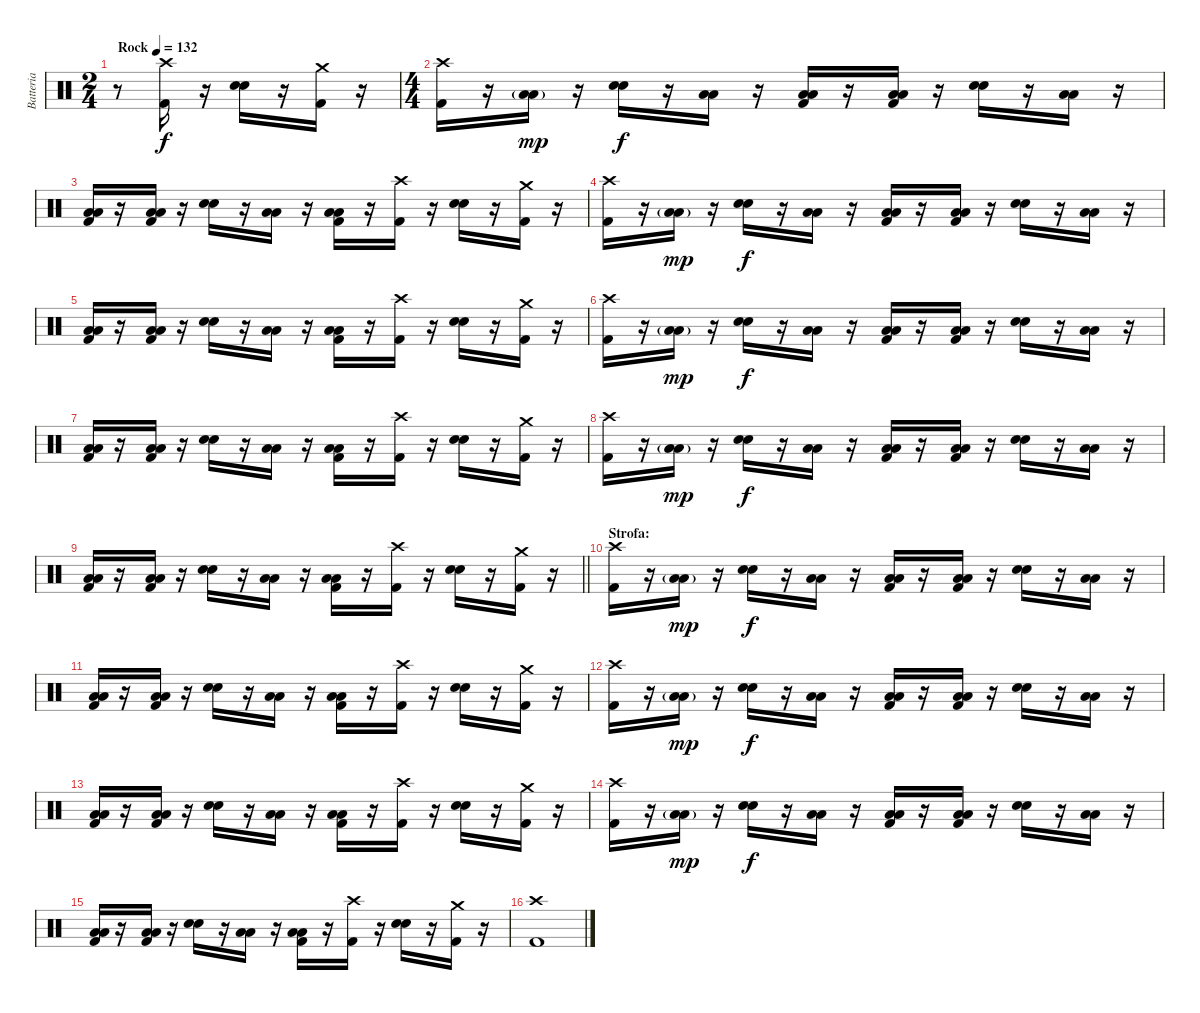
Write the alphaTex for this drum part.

\track ("Batteria" "Batteria") {instrument percussion}
\staff {score}
\articulation defaults
\ts (2 4)
\tempo (132 "Rock")
\clef neutral
\ks c
r.8{dy f} ("Kick (hit) 2" "Crash high (hit)").16 r.16 ("Snare (hit) 2" "Snare (hit) 2").16 r.16 ("Kick (hit) 2" "Crash medium (hit)").16 r.16 |
\ts (4 4)
("Kick (hit) 2" "Crash high (hit)").16 r.16 ("Low Floor Tom (hit)"{g} "Low Floor Tom (hit)"{g}).16{dy mp} r.16 ("Snare (hit) 2" "Snare (hit) 2").16{dy f} r.16 ("Low Floor Tom (hit)" "Low Floor Tom (hit)").16 r.16 ("Kick (hit) 2" "Low Floor Tom (hit)" "Low Floor Tom (hit)").16 r.16 ("Kick (hit) 2" "Low Floor Tom (hit)" "Low Floor Tom (hit)").16 r.16 ("Snare (hit) 2" "Snare (hit) 2").16 r.16 ("Low Floor Tom (hit)" "Low Floor Tom (hit)").16 r.16 |
("Kick (hit) 2" "Low Floor Tom (hit)" "Low Floor Tom (hit)").16 r.16 ("Kick (hit) 2" "Low Floor Tom (hit)" "Low Floor Tom (hit)").16 r.16 ("Snare (hit) 2" "Snare (hit) 2").16 r.16 ("Low Floor Tom (hit)" "Low Floor Tom (hit)").16 r.16 ("Kick (hit) 2" "Low Floor Tom (hit)" "Low Floor Tom (hit)").16 r.16 ("Kick (hit) 2" "Crash high (hit)").16 r.16 ("Snare (hit) 2" "Snare (hit) 2").16 r.16 ("Kick (hit) 2" "Crash medium (hit)").16 r.16 |
("Kick (hit) 2" "Crash high (hit)").16 r.16 ("Low Floor Tom (hit)"{g} "Low Floor Tom (hit)"{g}).16{dy mp} r.16 ("Snare (hit) 2" "Snare (hit) 2").16{dy f} r.16 ("Low Floor Tom (hit)" "Low Floor Tom (hit)").16 r.16 ("Kick (hit) 2" "Low Floor Tom (hit)" "Low Floor Tom (hit)").16 r.16 ("Kick (hit) 2" "Low Floor Tom (hit)" "Low Floor Tom (hit)").16 r.16 ("Snare (hit) 2" "Snare (hit) 2").16 r.16 ("Low Floor Tom (hit)" "Low Floor Tom (hit)").16 r.16 |
("Kick (hit) 2" "Low Floor Tom (hit)" "Low Floor Tom (hit)").16 r.16 ("Kick (hit) 2" "Low Floor Tom (hit)" "Low Floor Tom (hit)").16 r.16 ("Snare (hit) 2" "Snare (hit) 2").16 r.16 ("Low Floor Tom (hit)" "Low Floor Tom (hit)").16 r.16 ("Kick (hit) 2" "Low Floor Tom (hit)" "Low Floor Tom (hit)").16 r.16 ("Kick (hit) 2" "Crash high (hit)").16 r.16 ("Snare (hit) 2" "Snare (hit) 2").16 r.16 ("Kick (hit) 2" "Crash medium (hit)").16 r.16 |
("Kick (hit) 2" "Crash high (hit)").16 r.16 ("Low Floor Tom (hit)"{g} "Low Floor Tom (hit)"{g}).16{dy mp} r.16 ("Snare (hit) 2" "Snare (hit) 2").16{dy f} r.16 ("Low Floor Tom (hit)" "Low Floor Tom (hit)").16 r.16 ("Kick (hit) 2" "Low Floor Tom (hit)" "Low Floor Tom (hit)").16 r.16 ("Kick (hit) 2" "Low Floor Tom (hit)" "Low Floor Tom (hit)").16 r.16 ("Snare (hit) 2" "Snare (hit) 2").16 r.16 ("Low Floor Tom (hit)" "Low Floor Tom (hit)").16 r.16 |
("Kick (hit) 2" "Low Floor Tom (hit)" "Low Floor Tom (hit)").16 r.16 ("Kick (hit) 2" "Low Floor Tom (hit)" "Low Floor Tom (hit)").16 r.16 ("Snare (hit) 2" "Snare (hit) 2").16 r.16 ("Low Floor Tom (hit)" "Low Floor Tom (hit)").16 r.16 ("Kick (hit) 2" "Low Floor Tom (hit)" "Low Floor Tom (hit)").16 r.16 ("Kick (hit) 2" "Crash high (hit)").16 r.16 ("Snare (hit) 2" "Snare (hit) 2").16 r.16 ("Kick (hit) 2" "Crash medium (hit)").16 r.16 |
("Kick (hit) 2" "Crash high (hit)").16 r.16 ("Low Floor Tom (hit)"{g} "Low Floor Tom (hit)"{g}).16{dy mp} r.16 ("Snare (hit) 2" "Snare (hit) 2").16{dy f} r.16 ("Low Floor Tom (hit)" "Low Floor Tom (hit)").16 r.16 ("Kick (hit) 2" "Low Floor Tom (hit)" "Low Floor Tom (hit)").16 r.16 ("Kick (hit) 2" "Low Floor Tom (hit)" "Low Floor Tom (hit)").16 r.16 ("Snare (hit) 2" "Snare (hit) 2").16 r.16 ("Low Floor Tom (hit)" "Low Floor Tom (hit)").16 r.16 |
\barLineRight lightlight
("Kick (hit) 2" "Low Floor Tom (hit)" "Low Floor Tom (hit)").16 r.16 ("Kick (hit) 2" "Low Floor Tom (hit)" "Low Floor Tom (hit)").16 r.16 ("Snare (hit) 2" "Snare (hit) 2").16 r.16 ("Low Floor Tom (hit)" "Low Floor Tom (hit)").16 r.16 ("Kick (hit) 2" "Low Floor Tom (hit)" "Low Floor Tom (hit)").16 r.16 ("Kick (hit) 2" "Crash high (hit)").16 r.16 ("Snare (hit) 2" "Snare (hit) 2").16 r.16 ("Kick (hit) 2" "Crash medium (hit)").16 r.16 |
\section ("" "Strofa:")
("Kick (hit) 2" "Crash high (hit)").16 r.16 ("Low Floor Tom (hit)"{g} "Low Floor Tom (hit)"{g}).16{dy mp} r.16 ("Snare (hit) 2" "Snare (hit) 2").16{dy f} r.16 ("Low Floor Tom (hit)" "Low Floor Tom (hit)").16 r.16 ("Kick (hit) 2" "Low Floor Tom (hit)" "Low Floor Tom (hit)").16 r.16 ("Kick (hit) 2" "Low Floor Tom (hit)" "Low Floor Tom (hit)").16 r.16 ("Snare (hit) 2" "Snare (hit) 2").16 r.16 ("Low Floor Tom (hit)" "Low Floor Tom (hit)").16 r.16 |
("Kick (hit) 2" "Low Floor Tom (hit)" "Low Floor Tom (hit)").16 r.16 ("Kick (hit) 2" "Low Floor Tom (hit)" "Low Floor Tom (hit)").16 r.16 ("Snare (hit) 2" "Snare (hit) 2").16 r.16 ("Low Floor Tom (hit)" "Low Floor Tom (hit)").16 r.16 ("Kick (hit) 2" "Low Floor Tom (hit)" "Low Floor Tom (hit)").16 r.16 ("Kick (hit) 2" "Crash high (hit)").16 r.16 ("Snare (hit) 2" "Snare (hit) 2").16 r.16 ("Kick (hit) 2" "Crash medium (hit)").16 r.16 |
("Kick (hit) 2" "Crash high (hit)").16 r.16 ("Low Floor Tom (hit)"{g} "Low Floor Tom (hit)"{g}).16{dy mp} r.16 ("Snare (hit) 2" "Snare (hit) 2").16{dy f} r.16 ("Low Floor Tom (hit)" "Low Floor Tom (hit)").16 r.16 ("Kick (hit) 2" "Low Floor Tom (hit)" "Low Floor Tom (hit)").16 r.16 ("Kick (hit) 2" "Low Floor Tom (hit)" "Low Floor Tom (hit)").16 r.16 ("Snare (hit) 2" "Snare (hit) 2").16 r.16 ("Low Floor Tom (hit)" "Low Floor Tom (hit)").16 r.16 |
("Kick (hit) 2" "Low Floor Tom (hit)" "Low Floor Tom (hit)").16 r.16 ("Kick (hit) 2" "Low Floor Tom (hit)" "Low Floor Tom (hit)").16 r.16 ("Snare (hit) 2" "Snare (hit) 2").16 r.16 ("Low Floor Tom (hit)" "Low Floor Tom (hit)").16 r.16 ("Kick (hit) 2" "Low Floor Tom (hit)" "Low Floor Tom (hit)").16 r.16 ("Kick (hit) 2" "Crash high (hit)").16 r.16 ("Snare (hit) 2" "Snare (hit) 2").16 r.16 ("Kick (hit) 2" "Crash medium (hit)").16 r.16 |
("Kick (hit) 2" "Crash high (hit)").16 r.16 ("Low Floor Tom (hit)"{g} "Low Floor Tom (hit)"{g}).16{dy mp} r.16 ("Snare (hit) 2" "Snare (hit) 2").16{dy f} r.16 ("Low Floor Tom (hit)" "Low Floor Tom (hit)").16 r.16 ("Kick (hit) 2" "Low Floor Tom (hit)" "Low Floor Tom (hit)").16 r.16 ("Kick (hit) 2" "Low Floor Tom (hit)" "Low Floor Tom (hit)").16 r.16 ("Snare (hit) 2" "Snare (hit) 2").16 r.16 ("Low Floor Tom (hit)" "Low Floor Tom (hit)").16 r.16 |
("Kick (hit) 2" "Low Floor Tom (hit)" "Low Floor Tom (hit)").16 r.16 ("Kick (hit) 2" "Low Floor Tom (hit)" "Low Floor Tom (hit)").16 r.16 ("Snare (hit) 2" "Snare (hit) 2").16 r.16 ("Low Floor Tom (hit)" "Low Floor Tom (hit)").16 r.16 ("Kick (hit) 2" "Low Floor Tom (hit)" "Low Floor Tom (hit)").16 r.16 ("Kick (hit) 2" "Crash high (hit)").16 r.16 ("Snare (hit) 2" "Snare (hit) 2").16 r.16 ("Kick (hit) 2" "Crash medium (hit)").16 r.16 |
("Kick (hit) 2" "Crash high (hit)").1
